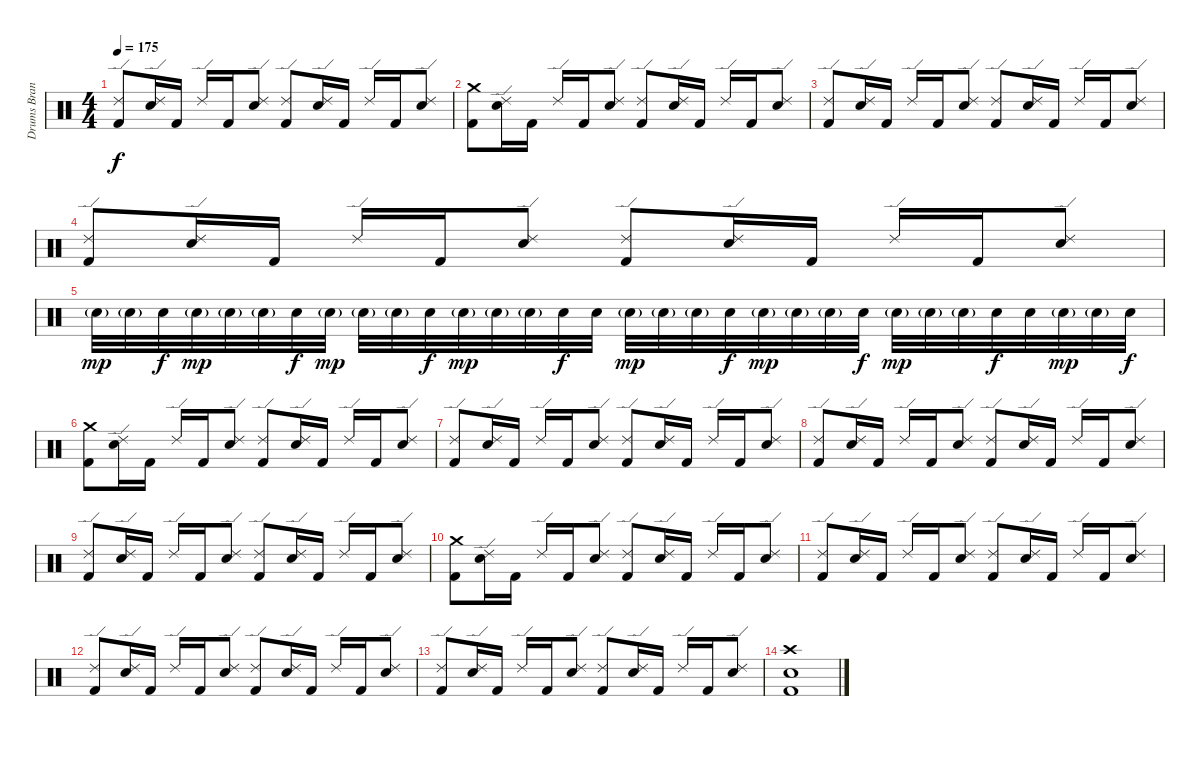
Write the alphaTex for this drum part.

\track ("Drums Brandon" "Drums Bran") {instrument percussion}
\staff {score}
\articulation defaults
\ts (4 4)
\tempo 175
\clef neutral
\ks c
("Ride (edge) 2" "Kick (hit) 2").8{dy f} ("Ride (edge) 2" "Electric Snare (hit)").16 "Kick (hit) 2".16 "Ride (edge) 2".16 "Kick (hit) 2".16 ("Ride (edge) 2" "Electric Snare (hit)").8 ("Ride (edge) 2" "Kick (hit) 2").8 ("Ride (edge) 2" "Electric Snare (hit)").16 "Kick (hit) 2".16 "Ride (edge) 2".16 "Kick (hit) 2".16 ("Ride (edge) 2" "Electric Snare (hit)").8 |
("Crash medium (hit)" "Kick (hit) 2").8 ("Ride (edge) 2" "Electric Snare (hit)").16 "Kick (hit) 2".16 "Ride (edge) 2".16 "Kick (hit) 2".16 ("Ride (edge) 2" "Electric Snare (hit)").8 ("Ride (edge) 2" "Kick (hit) 2").8 ("Ride (edge) 2" "Electric Snare (hit)").16 "Kick (hit) 2".16 "Ride (edge) 2".16 "Kick (hit) 2".16 ("Ride (edge) 2" "Electric Snare (hit)").8 |
("Ride (edge) 2" "Kick (hit) 2").8 ("Ride (edge) 2" "Electric Snare (hit)").16 "Kick (hit) 2".16 "Ride (edge) 2".16 "Kick (hit) 2".16 ("Ride (edge) 2" "Electric Snare (hit)").8 ("Ride (edge) 2" "Kick (hit) 2").8 ("Ride (edge) 2" "Electric Snare (hit)").16 "Kick (hit) 2".16 "Ride (edge) 2".16 "Kick (hit) 2".16 ("Ride (edge) 2" "Electric Snare (hit)").8 |
("Ride (edge) 2" "Kick (hit) 2").8 ("Ride (edge) 2" "Electric Snare (hit)").16 "Kick (hit) 2".16 "Ride (edge) 2".16 "Kick (hit) 2".16 ("Ride (edge) 2" "Electric Snare (hit)").8 ("Ride (edge) 2" "Kick (hit) 2").8 ("Ride (edge) 2" "Electric Snare (hit)").16 "Kick (hit) 2".16 "Ride (edge) 2".16 "Kick (hit) 2".16 ("Ride (edge) 2" "Electric Snare (hit)").8 |
"Electric Snare (hit)"{g}.32{dy mp} "Electric Snare (hit)"{g}.32 "Electric Snare (hit)".32{dy f} "Electric Snare (hit)"{g}.32{dy mp} "Electric Snare (hit)"{g}.32 "Electric Snare (hit)"{g}.32 "Electric Snare (hit)".32{dy f} "Electric Snare (hit)"{g}.32{dy mp} "Electric Snare (hit)"{g}.32 "Electric Snare (hit)"{g}.32 "Electric Snare (hit)".32{dy f} "Electric Snare (hit)"{g}.32{dy mp} "Electric Snare (hit)"{g}.32 "Electric Snare (hit)"{g}.32 "Electric Snare (hit)".32{dy f} "Electric Snare (hit)".32 "Electric Snare (hit)"{g}.32{dy mp} "Electric Snare (hit)"{g}.32 "Electric Snare (hit)"{g}.32 "Electric Snare (hit)".32{dy f} "Electric Snare (hit)"{g}.32{dy mp} "Electric Snare (hit)"{g}.32 "Electric Snare (hit)"{g}.32 "Electric Snare (hit)".32{dy f} "Electric Snare (hit)"{g}.32{dy mp} "Electric Snare (hit)"{g}.32 "Electric Snare (hit)"{g}.32 "Electric Snare (hit)".32{dy f} "Electric Snare (hit)".32 "Electric Snare (hit)"{g}.32{dy mp} "Electric Snare (hit)"{g}.32 "Electric Snare (hit)".32{dy f} |
("Crash medium (hit)" "Kick (hit) 2").8 ("Ride (edge) 2" "Electric Snare (hit)").16 "Kick (hit) 2".16 "Ride (edge) 2".16 "Kick (hit) 2".16 ("Ride (edge) 2" "Electric Snare (hit)").8 ("Ride (edge) 2" "Kick (hit) 2").8 ("Ride (edge) 2" "Electric Snare (hit)").16 "Kick (hit) 2".16 "Ride (edge) 2".16 "Kick (hit) 2".16 ("Ride (edge) 2" "Electric Snare (hit)").8 |
("Ride (edge) 2" "Kick (hit) 2").8 ("Ride (edge) 2" "Electric Snare (hit)").16 "Kick (hit) 2".16 "Ride (edge) 2".16 "Kick (hit) 2".16 ("Ride (edge) 2" "Electric Snare (hit)").8 ("Ride (edge) 2" "Kick (hit) 2").8 ("Ride (edge) 2" "Electric Snare (hit)").16 "Kick (hit) 2".16 "Ride (edge) 2".16 "Kick (hit) 2".16 ("Ride (edge) 2" "Electric Snare (hit)").8 |
("Ride (edge) 2" "Kick (hit) 2").8 ("Ride (edge) 2" "Electric Snare (hit)").16 "Kick (hit) 2".16 "Ride (edge) 2".16 "Kick (hit) 2".16 ("Ride (edge) 2" "Electric Snare (hit)").8 ("Ride (edge) 2" "Kick (hit) 2").8 ("Ride (edge) 2" "Electric Snare (hit)").16 "Kick (hit) 2".16 "Ride (edge) 2".16 "Kick (hit) 2".16 ("Ride (edge) 2" "Electric Snare (hit)").8 |
("Ride (edge) 2" "Kick (hit) 2").8 ("Ride (edge) 2" "Electric Snare (hit)").16 "Kick (hit) 2".16 "Ride (edge) 2".16 "Kick (hit) 2".16 ("Ride (edge) 2" "Electric Snare (hit)").8 ("Ride (edge) 2" "Kick (hit) 2").8 ("Ride (edge) 2" "Electric Snare (hit)").16 "Kick (hit) 2".16 "Ride (edge) 2".16 "Kick (hit) 2".16 ("Ride (edge) 2" "Electric Snare (hit)").8 |
("Crash medium (hit)" "Kick (hit) 2").8 ("Ride (edge) 2" "Electric Snare (hit)").16 "Kick (hit) 2".16 "Ride (edge) 2".16 "Kick (hit) 2".16 ("Ride (edge) 2" "Electric Snare (hit)").8 ("Ride (edge) 2" "Kick (hit) 2").8 ("Ride (edge) 2" "Electric Snare (hit)").16 "Kick (hit) 2".16 "Ride (edge) 2".16 "Kick (hit) 2".16 ("Ride (edge) 2" "Electric Snare (hit)").8 |
("Ride (edge) 2" "Kick (hit) 2").8 ("Ride (edge) 2" "Electric Snare (hit)").16 "Kick (hit) 2".16 "Ride (edge) 2".16 "Kick (hit) 2".16 ("Ride (edge) 2" "Electric Snare (hit)").8 ("Ride (edge) 2" "Kick (hit) 2").8 ("Ride (edge) 2" "Electric Snare (hit)").16 "Kick (hit) 2".16 "Ride (edge) 2".16 "Kick (hit) 2".16 ("Ride (edge) 2" "Electric Snare (hit)").8 |
("Ride (edge) 2" "Kick (hit) 2").8 ("Ride (edge) 2" "Electric Snare (hit)").16 "Kick (hit) 2".16 "Ride (edge) 2".16 "Kick (hit) 2".16 ("Ride (edge) 2" "Electric Snare (hit)").8 ("Ride (edge) 2" "Kick (hit) 2").8 ("Ride (edge) 2" "Electric Snare (hit)").16 "Kick (hit) 2".16 "Ride (edge) 2".16 "Kick (hit) 2".16 ("Ride (edge) 2" "Electric Snare (hit)").8 |
("Ride (edge) 2" "Kick (hit) 2").8 ("Ride (edge) 2" "Electric Snare (hit)").16 "Kick (hit) 2".16 "Ride (edge) 2".16 "Kick (hit) 2".16 ("Ride (edge) 2" "Electric Snare (hit)").8 ("Ride (edge) 2" "Kick (hit) 2").8 ("Ride (edge) 2" "Electric Snare (hit)").16 "Kick (hit) 2".16 "Ride (edge) 2".16 "Kick (hit) 2".16 ("Ride (edge) 2" "Electric Snare (hit)").8 |
("Crash high (hit)" "Electric Snare (hit)" "Kick (hit) 2").1
